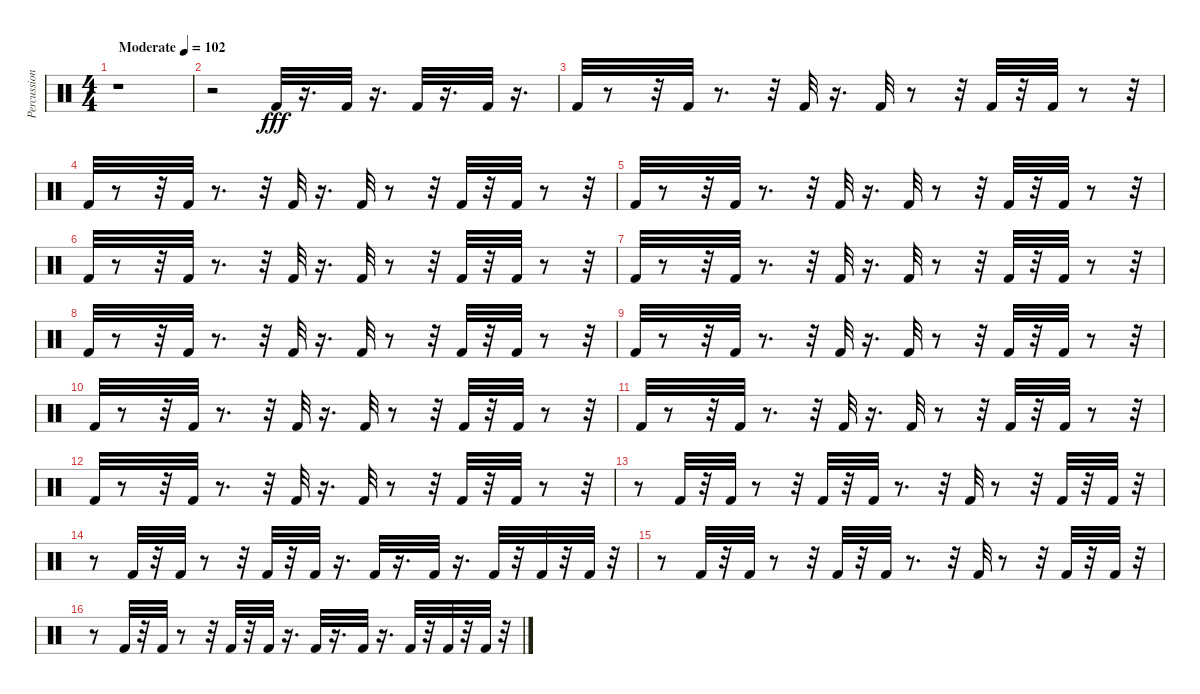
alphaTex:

\track ("Percussion" "Percussion") {instrument percussion}
\staff {score}
\articulation defaults
\ts (4 4)
\tempo (102 "Moderate")
\clef neutral
\ks c
r.1{dy fff} |
r.2 "Kick (hit) 2".32 r.16{d} "Kick (hit) 2".32 r.16{d} "Kick (hit) 2".32 r.16{d} "Kick (hit) 2".32 r.16{d} |
"Kick (hit) 2".32 r.8 r.32 "Kick (hit) 2".32 r.8{d} r.32 "Kick (hit) 2".32 r.16{d} "Kick (hit) 2".32 r.8 r.32 "Kick (hit) 2".32 r.32 "Kick (hit) 2".32 r.8 r.32 |
"Kick (hit) 2".32 r.8 r.32 "Kick (hit) 2".32 r.8{d} r.32 "Kick (hit) 2".32 r.16{d} "Kick (hit) 2".32 r.8 r.32 "Kick (hit) 2".32 r.32 "Kick (hit) 2".32 r.8 r.32 |
"Kick (hit) 2".32 r.8 r.32 "Kick (hit) 2".32 r.8{d} r.32 "Kick (hit) 2".32 r.16{d} "Kick (hit) 2".32 r.8 r.32 "Kick (hit) 2".32 r.32 "Kick (hit) 2".32 r.8 r.32 |
"Kick (hit) 2".32 r.8 r.32 "Kick (hit) 2".32 r.8{d} r.32 "Kick (hit) 2".32 r.16{d} "Kick (hit) 2".32 r.8 r.32 "Kick (hit) 2".32 r.32 "Kick (hit) 2".32 r.8 r.32 |
"Kick (hit) 2".32 r.8 r.32 "Kick (hit) 2".32 r.8{d} r.32 "Kick (hit) 2".32 r.16{d} "Kick (hit) 2".32 r.8 r.32 "Kick (hit) 2".32 r.32 "Kick (hit) 2".32 r.8 r.32 |
"Kick (hit) 2".32 r.8 r.32 "Kick (hit) 2".32 r.8{d} r.32 "Kick (hit) 2".32 r.16{d} "Kick (hit) 2".32 r.8 r.32 "Kick (hit) 2".32 r.32 "Kick (hit) 2".32 r.8 r.32 |
"Kick (hit) 2".32 r.8 r.32 "Kick (hit) 2".32 r.8{d} r.32 "Kick (hit) 2".32 r.16{d} "Kick (hit) 2".32 r.8 r.32 "Kick (hit) 2".32 r.32 "Kick (hit) 2".32 r.8 r.32 |
"Kick (hit) 2".32 r.8 r.32 "Kick (hit) 2".32 r.8{d} r.32 "Kick (hit) 2".32 r.16{d} "Kick (hit) 2".32 r.8 r.32 "Kick (hit) 2".32 r.32 "Kick (hit) 2".32 r.8 r.32 |
"Kick (hit) 2".32 r.8 r.32 "Kick (hit) 2".32 r.8{d} r.32 "Kick (hit) 2".32 r.16{d} "Kick (hit) 2".32 r.8 r.32 "Kick (hit) 2".32 r.32 "Kick (hit) 2".32 r.8 r.32 |
"Kick (hit) 2".32 r.8 r.32 "Kick (hit) 2".32 r.8{d} r.32 "Kick (hit) 2".32 r.16{d} "Kick (hit) 2".32 r.8 r.32 "Kick (hit) 2".32 r.32 "Kick (hit) 2".32 r.8 r.32 |
r.8 "Kick (hit) 2".32 r.32 "Kick (hit) 2".32 r.8 r.32 "Kick (hit) 2".32 r.32 "Kick (hit) 2".32 r.8{d} r.32 "Kick (hit) 2".32 r.8 r.32 "Kick (hit) 2".32 r.32 "Kick (hit) 2".32 r.32 |
r.8 "Kick (hit) 2".32 r.32 "Kick (hit) 2".32 r.8 r.32 "Kick (hit) 2".32 r.32 "Kick (hit) 2".32 r.16{d} "Kick (hit) 2".32 r.16{d} "Kick (hit) 2".32 r.16{d} "Kick (hit) 2".32 r.32 "Kick (hit) 2".32 r.32 "Kick (hit) 2".32 r.32 |
r.8 "Kick (hit) 2".32 r.32 "Kick (hit) 2".32 r.8 r.32 "Kick (hit) 2".32 r.32 "Kick (hit) 2".32 r.8{d} r.32 "Kick (hit) 2".32 r.8 r.32 "Kick (hit) 2".32 r.32 "Kick (hit) 2".32 r.32 |
r.8 "Kick (hit) 2".32 r.32 "Kick (hit) 2".32 r.8 r.32 "Kick (hit) 2".32 r.32 "Kick (hit) 2".32 r.16{d} "Kick (hit) 2".32 r.16{d} "Kick (hit) 2".32 r.16{d} "Kick (hit) 2".32 r.32 "Kick (hit) 2".32 r.32 "Kick (hit) 2".32 r.32
